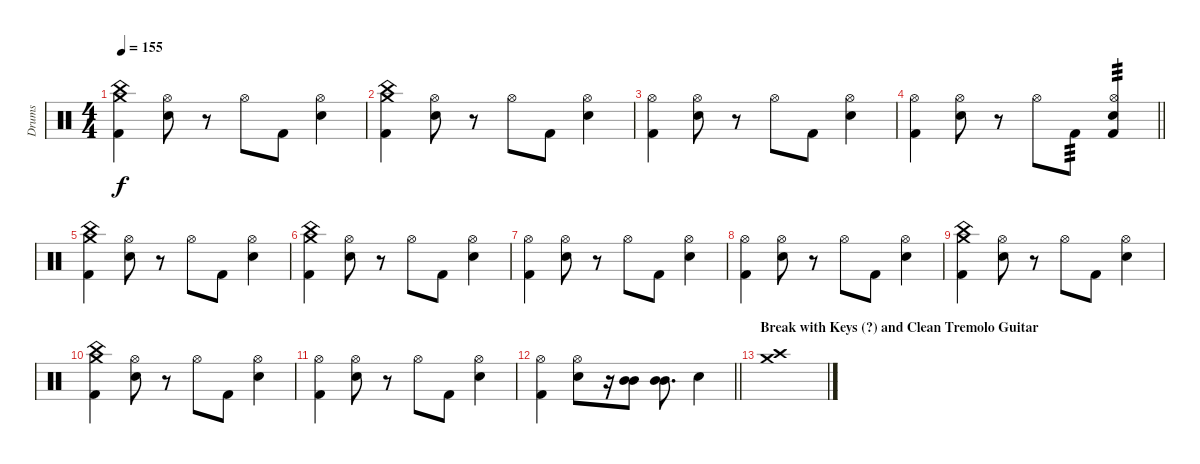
\track ("Drums" "Drums") {instrument percussion}
\staff {score}
\articulation defaults
\ts (4 4)
\tempo 155
\clef neutral
\ks c
("Crash medium (hit)" "China (hit)" "Kick (hit) 2").4{dy f} ("Hi-Hat (open)" "Electric Snare (hit)").8 r.8 "Hi-Hat (open)".8 "Kick (hit) 2".8 ("Hi-Hat (open)" "Electric Snare (hit)").4 |
("Crash medium (hit)" "China (hit)" "Kick (hit) 2").4 ("Hi-Hat (open)" "Electric Snare (hit)").8 r.8 "Hi-Hat (open)".8 "Kick (hit) 2".8 ("Hi-Hat (open)" "Electric Snare (hit)").4 |
("Hi-Hat (open)" "Kick (hit) 2").4 ("Hi-Hat (open)" "Electric Snare (hit)").8 r.8 "Hi-Hat (open)".8 "Kick (hit) 2".8 ("Hi-Hat (open)" "Electric Snare (hit)").4 |
\barLineRight lightlight
("Hi-Hat (open)" "Kick (hit) 2").4 ("Hi-Hat (open)" "Electric Snare (hit)").8 r.8 "Hi-Hat (open)".8 "Kick (hit) 2".8{tp 3} ("Hi-Hat (open)" "Electric Snare (hit)" "Kick (hit) 2").4{tp 3} |
("Crash medium (hit)" "China (hit)" "Kick (hit) 2").4 ("Hi-Hat (open)" "Electric Snare (hit)").8 r.8 "Hi-Hat (open)".8 "Kick (hit) 2".8 ("Hi-Hat (open)" "Electric Snare (hit)").4 |
("Crash medium (hit)" "China (hit)" "Kick (hit) 2").4 ("Hi-Hat (open)" "Electric Snare (hit)").8 r.8 "Hi-Hat (open)".8 "Kick (hit) 2".8 ("Hi-Hat (open)" "Electric Snare (hit)").4 |
("Hi-Hat (open)" "Kick (hit) 2").4 ("Hi-Hat (open)" "Electric Snare (hit)").8 r.8 "Hi-Hat (open)".8 "Kick (hit) 2".8 ("Hi-Hat (open)" "Electric Snare (hit)").4 |
("Hi-Hat (open)" "Kick (hit) 2").4 ("Hi-Hat (open)" "Electric Snare (hit)").8 r.8 "Hi-Hat (open)".8 "Kick (hit) 2".8 ("Hi-Hat (open)" "Electric Snare (hit)").4 |
("Crash medium (hit)" "China (hit)" "Kick (hit) 2").4 ("Hi-Hat (open)" "Electric Snare (hit)").8 r.8 "Hi-Hat (open)".8 "Kick (hit) 2".8 ("Hi-Hat (open)" "Electric Snare (hit)").4 |
("Crash medium (hit)" "China (hit)" "Kick (hit) 2").4 ("Hi-Hat (open)" "Electric Snare (hit)").8 r.8 "Hi-Hat (open)".8 "Kick (hit) 2".8 ("Hi-Hat (open)" "Electric Snare (hit)").4 |
("Hi-Hat (open)" "Kick (hit) 2").4 ("Hi-Hat (open)" "Electric Snare (hit)").8 r.8 "Hi-Hat (open)".8 "Kick (hit) 2".8 ("Hi-Hat (open)" "Electric Snare (hit)").4 |
\barLineRight lightlight
("Hi-Hat (open)" "Kick (hit) 2").4 ("Hi-Hat (open)" "Electric Snare (hit)").8 r.16 ("Mid Tom (hit)" "Mid Tom (hit)").8 ("Mid Tom (hit)" "Mid Tom (hit)").8{d} "Electric Snare (hit)".4 |
\section ("" "Break with Keys (?) and Clean Tremolo Guitar")
("Crash medium (hit)" "Crash high (hit)").1
